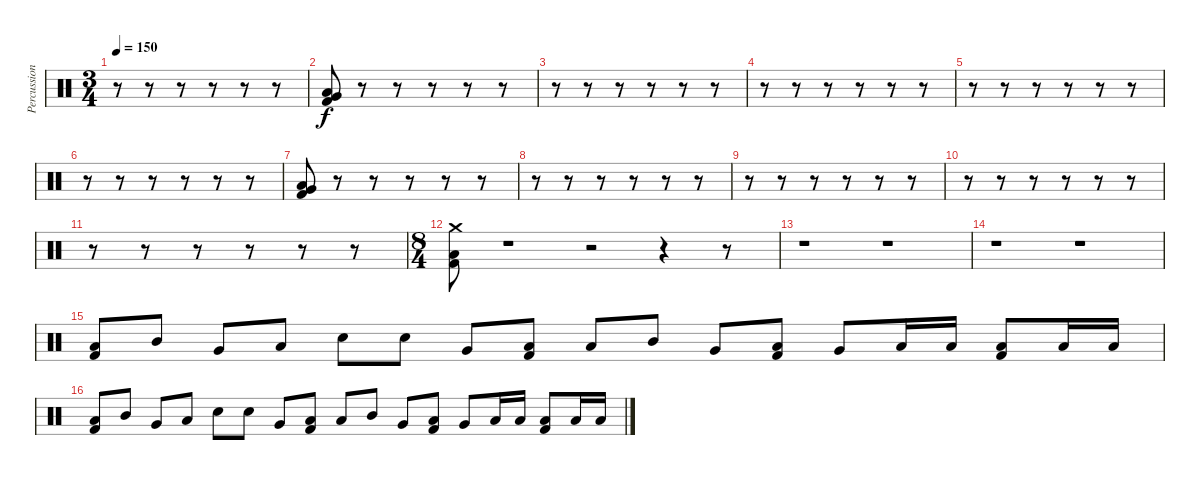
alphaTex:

\track ("Percussion" "Percussion") {instrument percussion}
\staff {score}
\articulation defaults
\ts (3 4)
\tempo 150
\clef neutral
\ks c
r.8{dy f} r.8 r.8 r.8 r.8 r.8 |
("Very Low Tom (hit)" "Low Floor Tom (hit)" "Kick (hit) 2").8 r.8 r.8 r.8 r.8 r.8 |
r.8 r.8 r.8 r.8 r.8 r.8 |
r.8 r.8 r.8 r.8 r.8 r.8 |
r.8 r.8 r.8 r.8 r.8 r.8 |
r.8 r.8 r.8 r.8 r.8 r.8 |
("Very Low Tom (hit)" "Low Floor Tom (hit)" "Kick (hit) 2").8 r.8 r.8 r.8 r.8 r.8 |
r.8 r.8 r.8 r.8 r.8 r.8 |
r.8 r.8 r.8 r.8 r.8 r.8 |
r.8 r.8 r.8 r.8 r.8 r.8 |
r.8 r.8 r.8 r.8 r.8 r.8 |
\ts (8 4)
("Crash medium (hit)" "Low Floor Tom (hit)" "Kick (hit) 2").8 r.1 r.2 r.4 r.8 |
r.1 r.1 |
r.1 r.1 |
("Low Floor Tom (hit)" "Kick (hit) 2").8 "Mid Tom (hit)".8 "Very Low Tom (hit)".8 "Low Floor Tom (hit)".8 "Electric Snare (hit)".8 "Electric Snare (hit)".8 "Very Low Tom (hit)".8 ("Low Floor Tom (hit)" "Kick (hit) 2").8 "Low Floor Tom (hit)".8 "Mid Tom (hit)".8 "Very Low Tom (hit)".8 ("Low Floor Tom (hit)" "Kick (hit) 2").8 "Very Low Tom (hit)".8 "Low Floor Tom (hit)".16 "Low Floor Tom (hit)".16 ("Low Floor Tom (hit)" "Kick (hit) 2").8 "Low Floor Tom (hit)".16 "Low Floor Tom (hit)".16 |
("Low Floor Tom (hit)" "Kick (hit) 2").8 "Mid Tom (hit)".8 "Very Low Tom (hit)".8 "Low Floor Tom (hit)".8 "Electric Snare (hit)".8 "Electric Snare (hit)".8 "Very Low Tom (hit)".8 ("Low Floor Tom (hit)" "Kick (hit) 2").8 "Low Floor Tom (hit)".8 "Mid Tom (hit)".8 "Very Low Tom (hit)".8 ("Low Floor Tom (hit)" "Kick (hit) 2").8 "Very Low Tom (hit)".8 "Low Floor Tom (hit)".16 "Low Floor Tom (hit)".16 ("Low Floor Tom (hit)" "Kick (hit) 2").8 "Low Floor Tom (hit)".16 "Low Floor Tom (hit)".16
